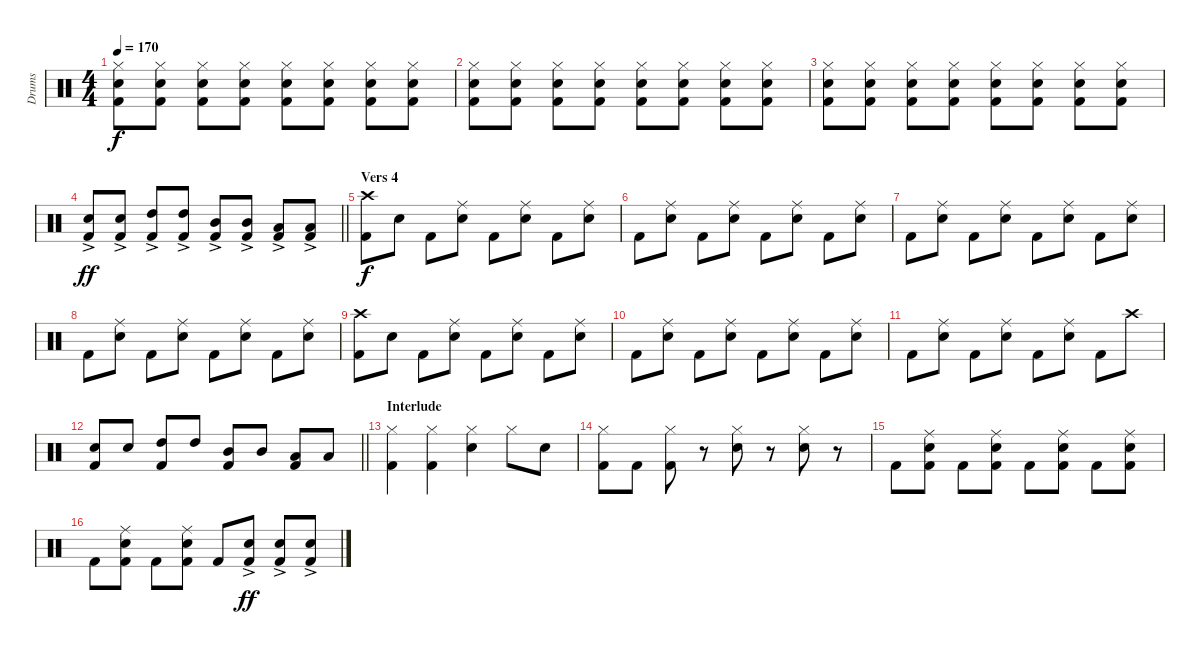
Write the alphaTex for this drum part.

\track ("Drums" "Drums") {instrument percussion}
\staff {score}
\articulation defaults
\ts (4 4)
\tempo 170
\clef neutral
\ks c
("Hi-Hat (closed)" "Snare (hit) 2" "Kick (hit) 2").8{dy f} ("Hi-Hat (closed)" "Snare (hit) 2" "Kick (hit) 2").8 ("Hi-Hat (closed)" "Snare (hit) 2" "Kick (hit) 2").8 ("Hi-Hat (closed)" "Snare (hit) 2" "Kick (hit) 2").8 ("Hi-Hat (closed)" "Snare (hit) 2" "Kick (hit) 2").8 ("Hi-Hat (closed)" "Snare (hit) 2" "Kick (hit) 2").8 ("Hi-Hat (closed)" "Snare (hit) 2" "Kick (hit) 2").8 ("Hi-Hat (closed)" "Snare (hit) 2" "Kick (hit) 2").8 |
("Hi-Hat (closed)" "Snare (hit) 2" "Kick (hit) 2").8 ("Hi-Hat (closed)" "Snare (hit) 2" "Kick (hit) 2").8 ("Hi-Hat (closed)" "Snare (hit) 2" "Kick (hit) 2").8 ("Hi-Hat (closed)" "Snare (hit) 2" "Kick (hit) 2").8 ("Hi-Hat (closed)" "Snare (hit) 2" "Kick (hit) 2").8 ("Hi-Hat (closed)" "Snare (hit) 2" "Kick (hit) 2").8 ("Hi-Hat (closed)" "Snare (hit) 2" "Kick (hit) 2").8 ("Hi-Hat (closed)" "Snare (hit) 2" "Kick (hit) 2").8 |
("Hi-Hat (closed)" "Snare (hit) 2" "Kick (hit) 2").8 ("Hi-Hat (closed)" "Snare (hit) 2" "Kick (hit) 2").8 ("Hi-Hat (closed)" "Snare (hit) 2" "Kick (hit) 2").8 ("Hi-Hat (closed)" "Snare (hit) 2" "Kick (hit) 2").8 ("Hi-Hat (closed)" "Snare (hit) 2" "Kick (hit) 2").8 ("Hi-Hat (closed)" "Snare (hit) 2" "Kick (hit) 2").8 ("Hi-Hat (closed)" "Snare (hit) 2" "Kick (hit) 2").8 ("Hi-Hat (closed)" "Snare (hit) 2" "Kick (hit) 2").8 |
\barLineRight lightlight
("Snare (hit) 2"{ac} "Kick (hit) 2").8{dy ff} ("Snare (hit) 2"{ac} "Kick (hit) 2").8 ("High Tom (hit)"{ac} "Kick (hit) 2").8 ("High Tom (hit)"{ac} "Kick (hit) 2").8 ("Mid Tom (hit)"{ac} "Kick (hit) 2").8 ("Mid Tom (hit)"{ac} "Kick (hit) 2").8 ("Low Tom (hit)"{ac} "Kick (hit) 2").8 ("Low Tom (hit)"{ac} "Kick (hit) 2").8 |
\section ("" "Vers 4")
("Crash high (hit)" "Kick (hit) 2").8{dy f} "Snare (hit) 2".8 "Kick (hit) 2".8 ("Ride (middle)" "Snare (hit) 2").8 "Kick (hit) 2".8 ("Ride (middle)" "Snare (hit) 2").8 "Kick (hit) 2".8 ("Ride (middle)" "Snare (hit) 2").8 |
"Kick (hit) 2".8 ("Ride (middle)" "Snare (hit) 2").8 "Kick (hit) 2".8 ("Ride (middle)" "Snare (hit) 2").8 "Kick (hit) 2".8 ("Ride (middle)" "Snare (hit) 2").8 "Kick (hit) 2".8 ("Ride (middle)" "Snare (hit) 2").8 |
"Kick (hit) 2".8 ("Ride (middle)" "Snare (hit) 2").8 "Kick (hit) 2".8 ("Ride (middle)" "Snare (hit) 2").8 "Kick (hit) 2".8 ("Ride (middle)" "Snare (hit) 2").8 "Kick (hit) 2".8 ("Ride (middle)" "Snare (hit) 2").8 |
"Kick (hit) 2".8 ("Ride (middle)" "Snare (hit) 2").8 "Kick (hit) 2".8 ("Ride (middle)" "Snare (hit) 2").8 "Kick (hit) 2".8 ("Ride (middle)" "Snare (hit) 2").8 "Kick (hit) 2".8 ("Ride (middle)" "Snare (hit) 2").8 |
("Crash high (hit)" "Kick (hit) 2").8 "Snare (hit) 2".8 "Kick (hit) 2".8 ("Ride (middle)" "Snare (hit) 2").8 "Kick (hit) 2".8 ("Ride (middle)" "Snare (hit) 2").8 "Kick (hit) 2".8 ("Ride (middle)" "Snare (hit) 2").8 |
"Kick (hit) 2".8 ("Ride (middle)" "Snare (hit) 2").8 "Kick (hit) 2".8 ("Ride (middle)" "Snare (hit) 2").8 "Kick (hit) 2".8 ("Ride (middle)" "Snare (hit) 2").8 "Kick (hit) 2".8 ("Ride (middle)" "Snare (hit) 2").8 |
"Kick (hit) 2".8 ("Ride (middle)" "Snare (hit) 2").8 "Kick (hit) 2".8 ("Ride (middle)" "Snare (hit) 2").8 "Kick (hit) 2".8 ("Ride (middle)" "Snare (hit) 2").8 "Kick (hit) 2".8 "Crash high (hit)".8 |
\barLineRight lightlight
("Snare (hit) 2" "Kick (hit) 2").8 "Snare (hit) 2".8 ("High Tom (hit)" "Kick (hit) 2").8 "High Tom (hit)".8 ("Mid Tom (hit)" "Kick (hit) 2").8 "Mid Tom (hit)".8 ("Low Tom (hit)" "Kick (hit) 2").8 "Low Tom (hit)".8 |
\section ("" "Interlude")
("Hi-Hat (closed)" "Kick (hit) 2").4 ("Hi-Hat (closed)" "Kick (hit) 2").4 ("Hi-Hat (closed)" "Snare (hit) 2").4 "Hi-Hat (closed)".8 "Snare (hit) 2".8 |
("Hi-Hat (closed)" "Kick (hit) 2").8 "Kick (hit) 2".8 ("Hi-Hat (closed)" "Kick (hit) 2").8 r.8 ("Hi-Hat (closed)" "Snare (hit) 2").8 r.8 ("Hi-Hat (closed)" "Snare (hit) 2").8 r.8 |
"Kick (hit) 2".8 ("Ride (middle)" "Snare (hit) 2" "Kick (hit) 2").8 "Kick (hit) 2".8 ("Ride (middle)" "Snare (hit) 2" "Kick (hit) 2").8 "Kick (hit) 2".8 ("Ride (middle)" "Snare (hit) 2" "Kick (hit) 2").8 "Kick (hit) 2".8 ("Ride (middle)" "Snare (hit) 2" "Kick (hit) 2").8 |
"Kick (hit) 2".8 ("Ride (middle)" "Snare (hit) 2" "Kick (hit) 2").8 "Kick (hit) 2".8 ("Ride (middle)" "Snare (hit) 2" "Kick (hit) 2").8 "Kick (hit) 2".8 ("Snare (hit) 2"{ac} "Kick (hit) 2").8{dy ff} ("Snare (hit) 2"{ac} "Kick (hit) 2").8 ("Snare (hit) 2"{ac} "Kick (hit) 2").8
